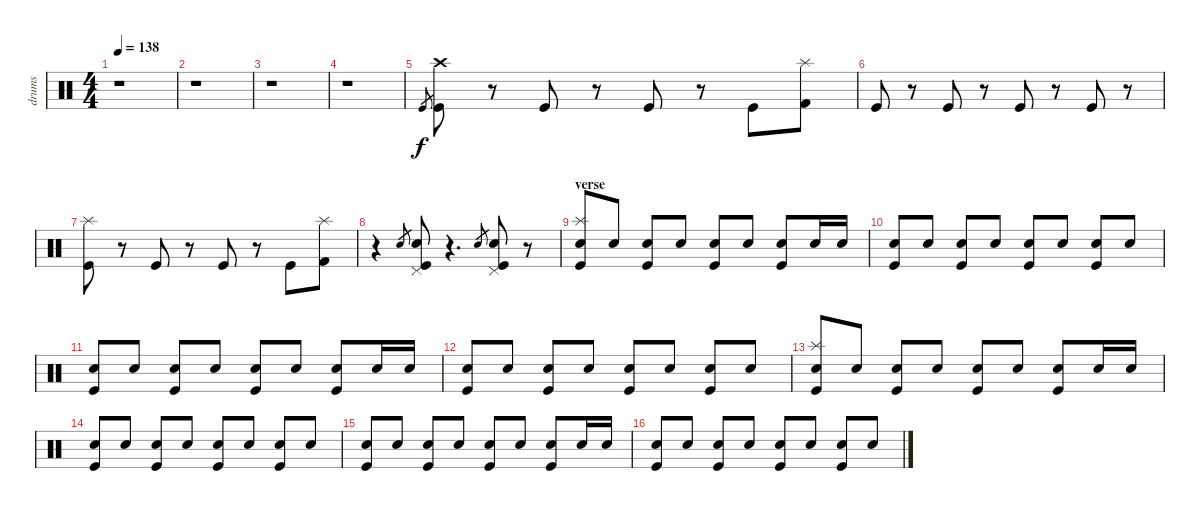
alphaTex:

\track ("drums" "drums") {instrument percussion}
\staff {score}
\articulation defaults
\ts (4 4)
\tempo 138
\clef neutral
\ks c
r.1{dy f} |
r.1 |
r.1 |
r.1 |
"Kick (hit)".8{gr} ("Crash high (hit)" "Kick (hit)").8{volume 16} r.8 "Kick (hit)".8 r.8 "Kick (hit)".8 r.8 "Kick (hit)".8 ("Splash (hit)" "Kick (hit) 2").8 |
"Kick (hit)".8 r.8 "Kick (hit)".8 r.8 "Kick (hit)".8 r.8 "Kick (hit)".8 r.8 |
("Splash (hit)" "Kick (hit)").8 r.8 "Kick (hit)".8 r.8 "Kick (hit)".8 r.8 "Kick (hit)".8 ("Splash (hit)" "Kick (hit) 2").8 |
r.4 "Snare (hit) 2".8{gr} ("Snare (hit) 2" "Pedal Hi-Hat (hit)" "Kick (hit)").8 r.4{d} "Snare (hit) 2".8{gr} ("Snare (hit) 2" "Pedal Hi-Hat (hit)" "Kick (hit)").8 r.8 |
\section ("" "verse")
("Splash (hit)" "Snare (hit) 2" "Kick (hit)").8{volume 11} "Snare (hit) 2".8 ("Snare (hit) 2" "Kick (hit)").8 "Snare (hit) 2".8 ("Snare (hit) 2" "Kick (hit)").8 "Snare (hit) 2".8 ("Snare (hit) 2" "Kick (hit)").8 "Snare (hit) 2".16 "Snare (hit) 2".16 |
("Snare (hit) 2" "Kick (hit)").8 "Snare (hit) 2".8 ("Snare (hit) 2" "Kick (hit)").8 "Snare (hit) 2".8 ("Snare (hit) 2" "Kick (hit)").8 "Snare (hit) 2".8 ("Snare (hit) 2" "Kick (hit)").8 "Snare (hit) 2".8 |
("Snare (hit) 2" "Kick (hit)").8 "Snare (hit) 2".8 ("Snare (hit) 2" "Kick (hit)").8 "Snare (hit) 2".8 ("Snare (hit) 2" "Kick (hit)").8 "Snare (hit) 2".8 ("Snare (hit) 2" "Kick (hit)").8 "Snare (hit) 2".16{volume 11} "Snare (hit) 2".16 |
("Snare (hit) 2" "Kick (hit)").8 "Snare (hit) 2".8 ("Snare (hit) 2" "Kick (hit)").8 "Snare (hit) 2".8 ("Snare (hit) 2" "Kick (hit)").8 "Snare (hit) 2".8 ("Snare (hit) 2" "Kick (hit)").8 "Snare (hit) 2".8 |
("Splash (hit)" "Snare (hit) 2" "Kick (hit)").8 "Snare (hit) 2".8 ("Snare (hit) 2" "Kick (hit)").8 "Snare (hit) 2".8 ("Snare (hit) 2" "Kick (hit)").8 "Snare (hit) 2".8 ("Snare (hit) 2" "Kick (hit)").8 "Snare (hit) 2".16{volume 11} "Snare (hit) 2".16 |
("Snare (hit) 2" "Kick (hit)").8 "Snare (hit) 2".8 ("Snare (hit) 2" "Kick (hit)").8 "Snare (hit) 2".8 ("Snare (hit) 2" "Kick (hit)").8 "Snare (hit) 2".8 ("Snare (hit) 2" "Kick (hit)").8 "Snare (hit) 2".8 |
("Snare (hit) 2" "Kick (hit)").8 "Snare (hit) 2".8 ("Snare (hit) 2" "Kick (hit)").8 "Snare (hit) 2".8 ("Snare (hit) 2" "Kick (hit)").8 "Snare (hit) 2".8 ("Snare (hit) 2" "Kick (hit)").8 "Snare (hit) 2".16{volume 11} "Snare (hit) 2".16 |
("Snare (hit) 2" "Kick (hit)").8 "Snare (hit) 2".8 ("Snare (hit) 2" "Kick (hit)").8 "Snare (hit) 2".8 ("Snare (hit) 2" "Kick (hit)").8 "Snare (hit) 2".8 ("Snare (hit) 2" "Kick (hit)").8 "Snare (hit) 2".8
